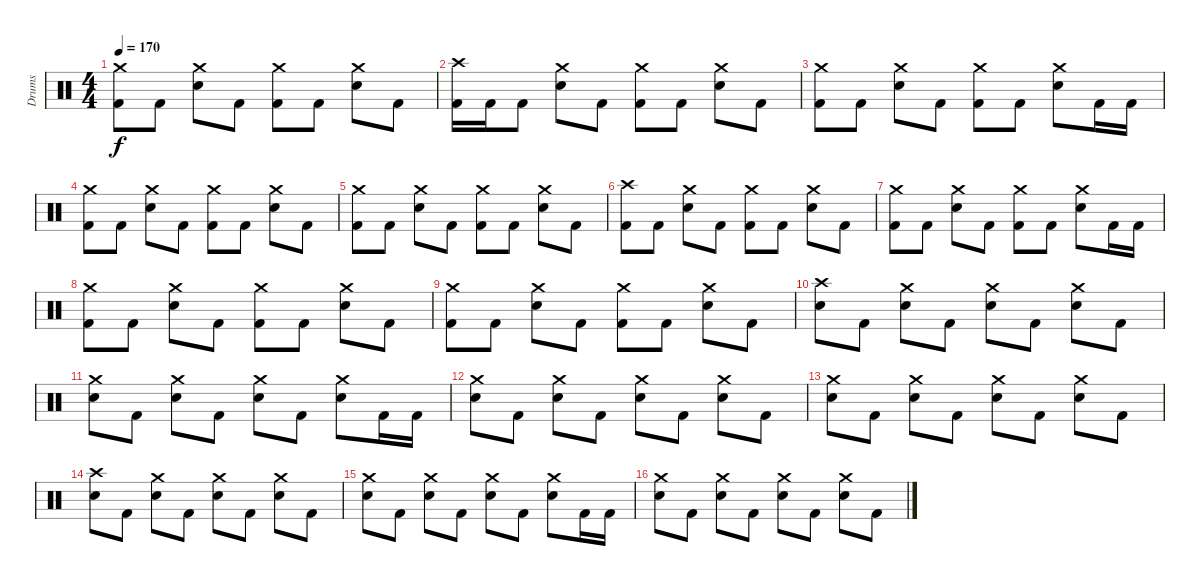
\track ("Drums" "Drums") {instrument percussion}
\staff {score}
\articulation defaults
\ts (4 4)
\tempo 170
\clef neutral
\ks c
("Kick (hit) 2" "Crash medium (hit)").8{dy f} "Kick (hit) 2".8 ("Electric Snare (hit)" "Crash medium (hit)").8 "Kick (hit) 2".8 ("Kick (hit) 2" "Crash medium (hit)").8 "Kick (hit) 2".8 ("Electric Snare (hit)" "Crash medium (hit)").8 "Kick (hit) 2".8 |
("Kick (hit) 2" "Crash high (hit)").16 "Kick (hit) 2".16 "Kick (hit) 2".8 ("Electric Snare (hit)" "Crash medium (hit)").8 "Kick (hit) 2".8 ("Kick (hit) 2" "Crash medium (hit)").8 "Kick (hit) 2".8 ("Electric Snare (hit)" "Crash medium (hit)").8 "Kick (hit) 2".8 |
("Kick (hit) 2" "Crash medium (hit)").8 "Kick (hit) 2".8 ("Electric Snare (hit)" "Crash medium (hit)").8 "Kick (hit) 2".8 ("Kick (hit) 2" "Crash medium (hit)").8 "Kick (hit) 2".8 ("Electric Snare (hit)" "Crash medium (hit)").8 "Kick (hit) 2".16 "Kick (hit) 2".16 |
("Kick (hit) 2" "Crash medium (hit)").8 "Kick (hit) 2".8 ("Electric Snare (hit)" "Crash medium (hit)").8 "Kick (hit) 2".8 ("Kick (hit) 2" "Crash medium (hit)").8 "Kick (hit) 2".8 ("Electric Snare (hit)" "Crash medium (hit)").8 "Kick (hit) 2".8 |
("Kick (hit) 2" "Crash medium (hit)").8 "Kick (hit) 2".8 ("Electric Snare (hit)" "Crash medium (hit)").8 "Kick (hit) 2".8 ("Kick (hit) 2" "Crash medium (hit)").8 "Kick (hit) 2".8 ("Electric Snare (hit)" "Crash medium (hit)").8 "Kick (hit) 2".8 |
("Kick (hit) 2" "Crash high (hit)").8 "Kick (hit) 2".8 ("Electric Snare (hit)" "Crash medium (hit)").8 "Kick (hit) 2".8 ("Kick (hit) 2" "Crash medium (hit)").8 "Kick (hit) 2".8 ("Electric Snare (hit)" "Crash medium (hit)").8 "Kick (hit) 2".8 |
("Kick (hit) 2" "Crash medium (hit)").8 "Kick (hit) 2".8 ("Electric Snare (hit)" "Crash medium (hit)").8 "Kick (hit) 2".8 ("Kick (hit) 2" "Crash medium (hit)").8 "Kick (hit) 2".8 ("Electric Snare (hit)" "Crash medium (hit)").8 "Kick (hit) 2".16 "Kick (hit) 2".16 |
("Kick (hit) 2" "Crash medium (hit)").8 "Kick (hit) 2".8 ("Electric Snare (hit)" "Crash medium (hit)").8 "Kick (hit) 2".8 ("Kick (hit) 2" "Crash medium (hit)").8 "Kick (hit) 2".8 ("Electric Snare (hit)" "Crash medium (hit)").8 "Kick (hit) 2".8 |
("Kick (hit) 2" "Crash medium (hit)").8 "Kick (hit) 2".8 ("Electric Snare (hit)" "Crash medium (hit)").8 "Kick (hit) 2".8 ("Kick (hit) 2" "Crash medium (hit)").8 "Kick (hit) 2".8 ("Electric Snare (hit)" "Crash medium (hit)").8 "Kick (hit) 2".8 |
("Electric Snare (hit)" "Crash high (hit)").8{volume 10} "Kick (hit) 2".8 ("Electric Snare (hit)" "Crash medium (hit)").8 "Kick (hit) 2".8 ("Electric Snare (hit)" "Crash medium (hit)").8 "Kick (hit) 2".8 ("Electric Snare (hit)" "Crash medium (hit)").8 "Kick (hit) 2".8 |
("Electric Snare (hit)" "Crash medium (hit)").8 "Kick (hit) 2".8 ("Electric Snare (hit)" "Crash medium (hit)").8 "Kick (hit) 2".8 ("Electric Snare (hit)" "Crash medium (hit)").8 "Kick (hit) 2".8 ("Electric Snare (hit)" "Crash medium (hit)").8 "Kick (hit) 2".16 "Kick (hit) 2".16 |
("Electric Snare (hit)" "Crash medium (hit)").8{volume 4} "Kick (hit) 2".8 ("Electric Snare (hit)" "Crash medium (hit)").8 "Kick (hit) 2".8 ("Electric Snare (hit)" "Crash medium (hit)").8 "Kick (hit) 2".8 ("Electric Snare (hit)" "Crash medium (hit)").8 "Kick (hit) 2".8 |
("Electric Snare (hit)" "Crash medium (hit)").8 "Kick (hit) 2".8 ("Electric Snare (hit)" "Crash medium (hit)").8 "Kick (hit) 2".8 ("Electric Snare (hit)" "Crash medium (hit)").8 "Kick (hit) 2".8 ("Electric Snare (hit)" "Crash medium (hit)").8 "Kick (hit) 2".8 |
("Electric Snare (hit)" "Crash high (hit)").8{volume 0} "Kick (hit) 2".8 ("Electric Snare (hit)" "Crash medium (hit)").8 "Kick (hit) 2".8 ("Electric Snare (hit)" "Crash medium (hit)").8 "Kick (hit) 2".8 ("Electric Snare (hit)" "Crash medium (hit)").8 "Kick (hit) 2".8 |
("Electric Snare (hit)" "Crash medium (hit)").8 "Kick (hit) 2".8 ("Electric Snare (hit)" "Crash medium (hit)").8 "Kick (hit) 2".8 ("Electric Snare (hit)" "Crash medium (hit)").8 "Kick (hit) 2".8 ("Electric Snare (hit)" "Crash medium (hit)").8 "Kick (hit) 2".16 "Kick (hit) 2".16 |
("Electric Snare (hit)" "Crash medium (hit)").8 "Kick (hit) 2".8 ("Electric Snare (hit)" "Crash medium (hit)").8 "Kick (hit) 2".8 ("Electric Snare (hit)" "Crash medium (hit)").8 "Kick (hit) 2".8 ("Electric Snare (hit)" "Crash medium (hit)").8 "Kick (hit) 2".8
